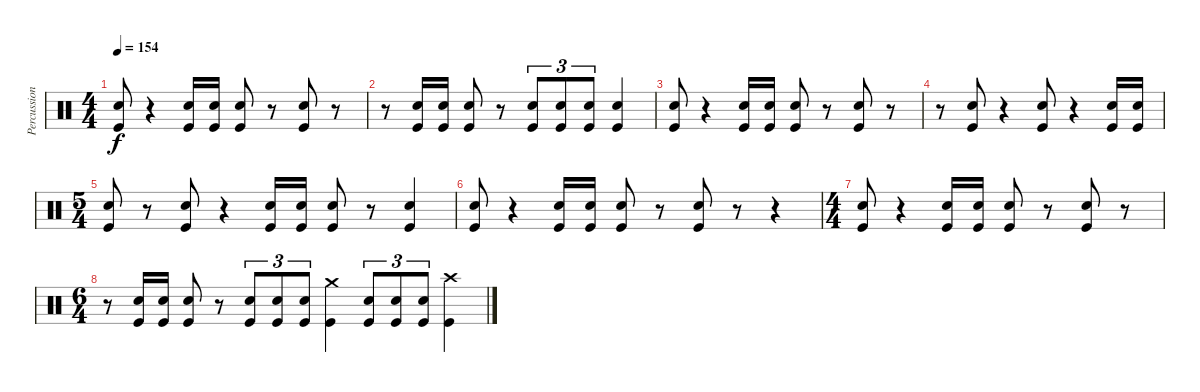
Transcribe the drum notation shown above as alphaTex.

\track ("Percussion" "Percussion") {instrument percussion}
\staff {score}
\articulation defaults
\ts (4 4)
\tempo 154
\clef neutral
\ks c
("Snare (hit) 2" "Kick (hit)").8{dy f} r.4 ("Snare (hit) 2" "Kick (hit)").16 ("Snare (hit) 2" "Kick (hit)").16 ("Snare (hit) 2" "Kick (hit)").8 r.8 ("Snare (hit) 2" "Kick (hit)").8 r.8 |
r.8 ("Snare (hit) 2" "Kick (hit)").16 ("Snare (hit) 2" "Kick (hit)").16 ("Snare (hit) 2" "Kick (hit)").8 r.8 ("Snare (hit) 2" "Kick (hit)").8{tu (3 2)} ("Snare (hit) 2" "Kick (hit)").8{tu (3 2)} ("Snare (hit) 2" "Kick (hit)").8{tu (3 2)} ("Snare (hit) 2" "Kick (hit)").4 |
("Snare (hit) 2" "Kick (hit)").8 r.4 ("Snare (hit) 2" "Kick (hit)").16 ("Snare (hit) 2" "Kick (hit)").16 ("Snare (hit) 2" "Kick (hit)").8 r.8 ("Snare (hit) 2" "Kick (hit)").8 r.8 |
r.8 ("Snare (hit) 2" "Kick (hit)").8 r.4 ("Snare (hit) 2" "Kick (hit)").8 r.4 ("Snare (hit) 2" "Kick (hit)").16 ("Snare (hit) 2" "Kick (hit)").16 |
\ts (5 4)
("Snare (hit) 2" "Kick (hit)").8 r.8 ("Snare (hit) 2" "Kick (hit)").8 r.4 ("Snare (hit) 2" "Kick (hit)").16 ("Snare (hit) 2" "Kick (hit)").16 ("Snare (hit) 2" "Kick (hit)").8 r.8 ("Snare (hit) 2" "Kick (hit)").4 |
("Snare (hit) 2" "Kick (hit)").8 r.4 ("Snare (hit) 2" "Kick (hit)").16 ("Snare (hit) 2" "Kick (hit)").16 ("Snare (hit) 2" "Kick (hit)").8 r.8 ("Snare (hit) 2" "Kick (hit)").8 r.8 r.4 |
\ts (4 4)
("Snare (hit) 2" "Kick (hit)").8 r.4 ("Snare (hit) 2" "Kick (hit)").16 ("Snare (hit) 2" "Kick (hit)").16 ("Snare (hit) 2" "Kick (hit)").8 r.8 ("Snare (hit) 2" "Kick (hit)").8 r.8 |
\ts (6 4)
r.8 ("Snare (hit) 2" "Kick (hit)").16 ("Snare (hit) 2" "Kick (hit)").16 ("Snare (hit) 2" "Kick (hit)").8 r.8 ("Snare (hit) 2" "Kick (hit)").8{tu (3 2)} ("Snare (hit) 2" "Kick (hit)").8{tu (3 2)} ("Snare (hit) 2" "Kick (hit)").8{tu (3 2)} ("Crash medium (hit)" "Kick (hit)").4 ("Snare (hit) 2" "Kick (hit)").8{tu (3 2)} ("Snare (hit) 2" "Kick (hit)").8{tu (3 2)} ("Snare (hit) 2" "Kick (hit)").8{tu (3 2)} ("Crash high (hit)" "Kick (hit)").4
